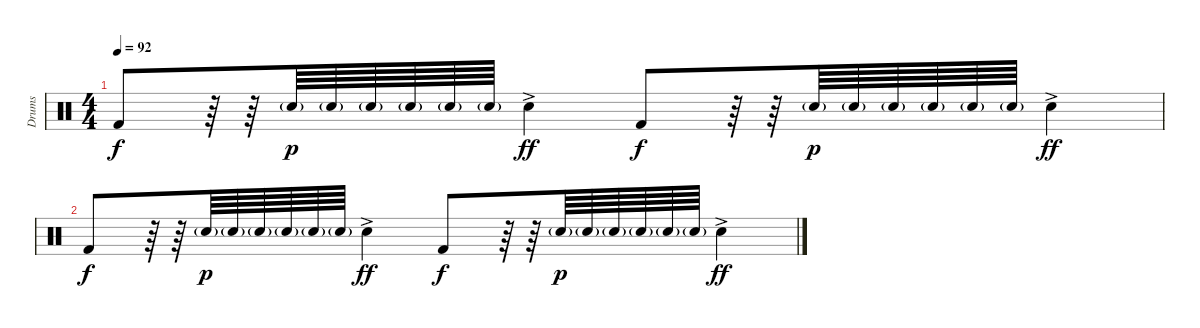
\track ("Drums" "Drums") {instrument percussion}
\staff {score}
\articulation defaults
\ts (4 4)
\tempo 92
\clef neutral
\ks c "Kick (hit) 2".8{dy f}
r.64 r.64 "Snare (hit) 2"{g}.64{dy p} "Snare (hit) 2"{g}.64 "Snare (hit) 2"{g}.64 "Snare (hit) 2"{g}.64 "Snare (hit) 2"{g}.64 "Snare (hit) 2"{g}.64 "Snare (hit) 2"{ac}.4{dy ff} "Kick (hit) 2".8{dy f} r.64 r.64 "Snare (hit) 2"{g}.64{dy p} "Snare (hit) 2"{g}.64 "Snare (hit) 2"{g}.64 "Snare (hit) 2"{g}.64 "Snare (hit) 2"{g}.64 "Snare (hit) 2"{g}.64 "Snare (hit) 2"{ac}.4{dy ff} |
"Kick (hit) 2".8{dy f} r.64 r.64 "Snare (hit) 2"{g}.64{dy p} "Snare (hit) 2"{g}.64 "Snare (hit) 2"{g}.64 "Snare (hit) 2"{g}.64 "Snare (hit) 2"{g}.64 "Snare (hit) 2"{g}.64 "Snare (hit) 2"{ac}.4{dy ff} "Kick (hit) 2".8{dy f} r.64 r.64 "Snare (hit) 2"{g}.64{dy p} "Snare (hit) 2"{g}.64 "Snare (hit) 2"{g}.64 "Snare (hit) 2"{g}.64 "Snare (hit) 2"{g}.64 "Snare (hit) 2"{g}.64 "Snare (hit) 2"{ac}.4{dy ff}
